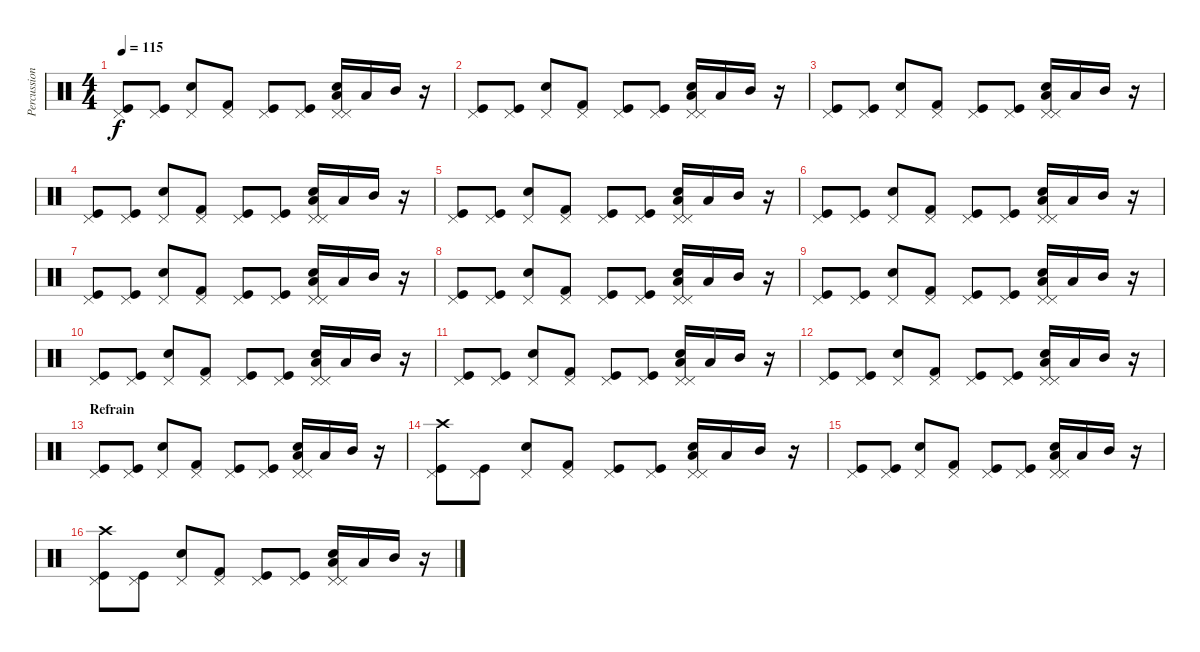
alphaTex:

\track ("Percussions" "Percussion") {instrument percussion}
\staff {score}
\articulation defaults
\ts (4 4)
\tempo 115
\clef neutral
\ks c
("Kick (hit)" "Pedal Hi-Hat (hit)").8{dy f} ("Kick (hit)" "Pedal Hi-Hat (hit)").8 ("Snare (hit) 2" "Pedal Hi-Hat (hit)").8 ("Kick (hit) 2" "Pedal Hi-Hat (hit)").8 ("Kick (hit)" "Pedal Hi-Hat (hit)").8 ("Kick (hit)" "Pedal Hi-Hat (hit)").8 ("Snare (hit) 2" "Pedal Hi-Hat (hit)" "Low Tom (hit)" "Pedal Hi-Hat (hit)").16 "Low Tom (hit)".16 "Mid Tom (hit)".16 r.16 |
("Kick (hit)" "Pedal Hi-Hat (hit)").8 ("Kick (hit)" "Pedal Hi-Hat (hit)").8 ("Snare (hit) 2" "Pedal Hi-Hat (hit)").8 ("Kick (hit) 2" "Pedal Hi-Hat (hit)").8 ("Kick (hit)" "Pedal Hi-Hat (hit)").8 ("Kick (hit)" "Pedal Hi-Hat (hit)").8 ("Snare (hit) 2" "Pedal Hi-Hat (hit)" "Low Tom (hit)" "Pedal Hi-Hat (hit)").16 "Low Tom (hit)".16 "Mid Tom (hit)".16 r.16 |
("Kick (hit)" "Pedal Hi-Hat (hit)").8 ("Kick (hit)" "Pedal Hi-Hat (hit)").8 ("Snare (hit) 2" "Pedal Hi-Hat (hit)").8 ("Kick (hit) 2" "Pedal Hi-Hat (hit)").8 ("Kick (hit)" "Pedal Hi-Hat (hit)").8 ("Kick (hit)" "Pedal Hi-Hat (hit)").8 ("Snare (hit) 2" "Pedal Hi-Hat (hit)" "Low Tom (hit)" "Pedal Hi-Hat (hit)").16 "Low Tom (hit)".16 "Mid Tom (hit)".16 r.16 |
("Kick (hit)" "Pedal Hi-Hat (hit)").8 ("Kick (hit)" "Pedal Hi-Hat (hit)").8 ("Snare (hit) 2" "Pedal Hi-Hat (hit)").8 ("Kick (hit) 2" "Pedal Hi-Hat (hit)").8 ("Kick (hit)" "Pedal Hi-Hat (hit)").8 ("Kick (hit)" "Pedal Hi-Hat (hit)").8 ("Snare (hit) 2" "Pedal Hi-Hat (hit)" "Low Tom (hit)" "Pedal Hi-Hat (hit)").16 "Low Tom (hit)".16 "Mid Tom (hit)".16 r.16 |
("Kick (hit)" "Pedal Hi-Hat (hit)").8 ("Kick (hit)" "Pedal Hi-Hat (hit)").8 ("Snare (hit) 2" "Pedal Hi-Hat (hit)").8 ("Kick (hit) 2" "Pedal Hi-Hat (hit)").8 ("Kick (hit)" "Pedal Hi-Hat (hit)").8 ("Kick (hit)" "Pedal Hi-Hat (hit)").8 ("Snare (hit) 2" "Pedal Hi-Hat (hit)" "Low Tom (hit)" "Pedal Hi-Hat (hit)").16 "Low Tom (hit)".16 "Mid Tom (hit)".16 r.16 |
("Kick (hit)" "Pedal Hi-Hat (hit)").8 ("Kick (hit)" "Pedal Hi-Hat (hit)").8 ("Snare (hit) 2" "Pedal Hi-Hat (hit)").8 ("Kick (hit) 2" "Pedal Hi-Hat (hit)").8 ("Kick (hit)" "Pedal Hi-Hat (hit)").8 ("Kick (hit)" "Pedal Hi-Hat (hit)").8 ("Snare (hit) 2" "Pedal Hi-Hat (hit)" "Low Tom (hit)" "Pedal Hi-Hat (hit)").16 "Low Tom (hit)".16 "Mid Tom (hit)".16 r.16 |
("Kick (hit)" "Pedal Hi-Hat (hit)").8 ("Kick (hit)" "Pedal Hi-Hat (hit)").8 ("Snare (hit) 2" "Pedal Hi-Hat (hit)").8 ("Kick (hit) 2" "Pedal Hi-Hat (hit)").8 ("Kick (hit)" "Pedal Hi-Hat (hit)").8 ("Kick (hit)" "Pedal Hi-Hat (hit)").8 ("Snare (hit) 2" "Pedal Hi-Hat (hit)" "Low Tom (hit)" "Pedal Hi-Hat (hit)").16 "Low Tom (hit)".16 "Mid Tom (hit)".16 r.16 |
("Kick (hit)" "Pedal Hi-Hat (hit)").8 ("Kick (hit)" "Pedal Hi-Hat (hit)").8 ("Snare (hit) 2" "Pedal Hi-Hat (hit)").8 ("Kick (hit) 2" "Pedal Hi-Hat (hit)").8 ("Kick (hit)" "Pedal Hi-Hat (hit)").8 ("Kick (hit)" "Pedal Hi-Hat (hit)").8 ("Snare (hit) 2" "Pedal Hi-Hat (hit)" "Low Tom (hit)" "Pedal Hi-Hat (hit)").16 "Low Tom (hit)".16 "Mid Tom (hit)".16 r.16 |
("Kick (hit)" "Pedal Hi-Hat (hit)").8 ("Kick (hit)" "Pedal Hi-Hat (hit)").8 ("Snare (hit) 2" "Pedal Hi-Hat (hit)").8 ("Kick (hit) 2" "Pedal Hi-Hat (hit)").8 ("Kick (hit)" "Pedal Hi-Hat (hit)").8 ("Kick (hit)" "Pedal Hi-Hat (hit)").8 ("Snare (hit) 2" "Pedal Hi-Hat (hit)" "Low Tom (hit)" "Pedal Hi-Hat (hit)").16 "Low Tom (hit)".16 "Mid Tom (hit)".16 r.16 |
("Kick (hit)" "Pedal Hi-Hat (hit)").8 ("Kick (hit)" "Pedal Hi-Hat (hit)").8 ("Snare (hit) 2" "Pedal Hi-Hat (hit)").8 ("Kick (hit) 2" "Pedal Hi-Hat (hit)").8 ("Kick (hit)" "Pedal Hi-Hat (hit)").8 ("Kick (hit)" "Pedal Hi-Hat (hit)").8 ("Snare (hit) 2" "Pedal Hi-Hat (hit)" "Low Tom (hit)" "Pedal Hi-Hat (hit)").16 "Low Tom (hit)".16 "Mid Tom (hit)".16 r.16 |
("Kick (hit)" "Pedal Hi-Hat (hit)").8 ("Kick (hit)" "Pedal Hi-Hat (hit)").8 ("Snare (hit) 2" "Pedal Hi-Hat (hit)").8 ("Kick (hit) 2" "Pedal Hi-Hat (hit)").8 ("Kick (hit)" "Pedal Hi-Hat (hit)").8 ("Kick (hit)" "Pedal Hi-Hat (hit)").8 ("Snare (hit) 2" "Pedal Hi-Hat (hit)" "Low Tom (hit)" "Pedal Hi-Hat (hit)").16 "Low Tom (hit)".16 "Mid Tom (hit)".16 r.16 |
("Kick (hit)" "Pedal Hi-Hat (hit)").8 ("Kick (hit)" "Pedal Hi-Hat (hit)").8 ("Snare (hit) 2" "Pedal Hi-Hat (hit)").8 ("Kick (hit) 2" "Pedal Hi-Hat (hit)").8 ("Kick (hit)" "Pedal Hi-Hat (hit)").8 ("Kick (hit)" "Pedal Hi-Hat (hit)").8 ("Snare (hit) 2" "Pedal Hi-Hat (hit)" "Low Tom (hit)" "Pedal Hi-Hat (hit)").16 "Low Tom (hit)".16 "Mid Tom (hit)".16 r.16 |
\section ("" "Refrain")
("Kick (hit)" "Pedal Hi-Hat (hit)").8{volume 16} ("Kick (hit)" "Pedal Hi-Hat (hit)").8 ("Snare (hit) 2" "Pedal Hi-Hat (hit)").8 ("Kick (hit) 2" "Pedal Hi-Hat (hit)").8 ("Kick (hit)" "Pedal Hi-Hat (hit)").8 ("Kick (hit)" "Pedal Hi-Hat (hit)").8 ("Snare (hit) 2" "Pedal Hi-Hat (hit)" "Low Tom (hit)" "Pedal Hi-Hat (hit)").16 "Low Tom (hit)".16 "Mid Tom (hit)".16 r.16 |
("Kick (hit)" "Pedal Hi-Hat (hit)" "Crash high (hit)").8 ("Kick (hit)" "Pedal Hi-Hat (hit)").8 ("Snare (hit) 2" "Pedal Hi-Hat (hit)").8 ("Kick (hit) 2" "Pedal Hi-Hat (hit)").8 ("Kick (hit)" "Pedal Hi-Hat (hit)").8 ("Kick (hit)" "Pedal Hi-Hat (hit)").8 ("Snare (hit) 2" "Pedal Hi-Hat (hit)" "Low Tom (hit)" "Pedal Hi-Hat (hit)").16 "Low Tom (hit)".16 "Mid Tom (hit)".16 r.16 |
("Kick (hit)" "Pedal Hi-Hat (hit)").8{volume 16} ("Kick (hit)" "Pedal Hi-Hat (hit)").8 ("Snare (hit) 2" "Pedal Hi-Hat (hit)").8 ("Kick (hit) 2" "Pedal Hi-Hat (hit)").8 ("Kick (hit)" "Pedal Hi-Hat (hit)").8 ("Kick (hit)" "Pedal Hi-Hat (hit)").8 ("Snare (hit) 2" "Pedal Hi-Hat (hit)" "Low Tom (hit)" "Pedal Hi-Hat (hit)").16 "Low Tom (hit)".16 "Mid Tom (hit)".16 r.16 |
("Kick (hit)" "Pedal Hi-Hat (hit)" "Crash high (hit)").8 ("Kick (hit)" "Pedal Hi-Hat (hit)").8 ("Snare (hit) 2" "Pedal Hi-Hat (hit)").8 ("Kick (hit) 2" "Pedal Hi-Hat (hit)").8 ("Kick (hit)" "Pedal Hi-Hat (hit)").8 ("Kick (hit)" "Pedal Hi-Hat (hit)").8 ("Snare (hit) 2" "Pedal Hi-Hat (hit)" "Low Tom (hit)" "Pedal Hi-Hat (hit)").16 "Low Tom (hit)".16 "Mid Tom (hit)".16 r.16
